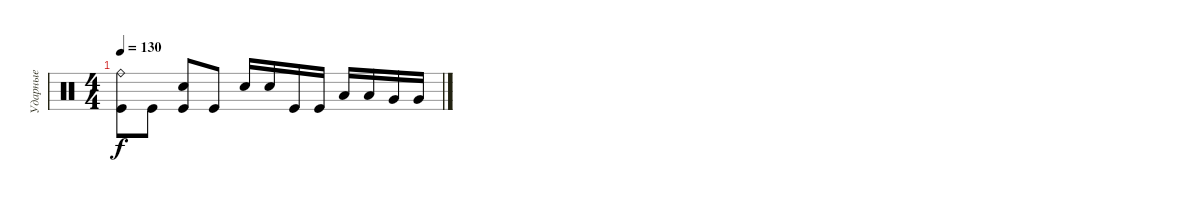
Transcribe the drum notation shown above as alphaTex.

\track ("Ударные" "Ударные") {instrument percussion}
\staff {score}
\articulation defaults
\ts (4 4)
\tempo 130
\clef neutral
\ks c
("Ride (bell)" "Kick (hit)").8{dy f} "Kick (hit)".8 ("Electric Snare (hit)" "Kick (hit)").8 "Kick (hit)".8 "Electric Snare (hit)".16 "Electric Snare (hit)".16 "Kick (hit)".16 "Kick (hit)".16 "Low Floor Tom (hit)".16 "Low Floor Tom (hit)".16 "Very Low Tom (hit)".16 "Very Low Tom (hit)".16
